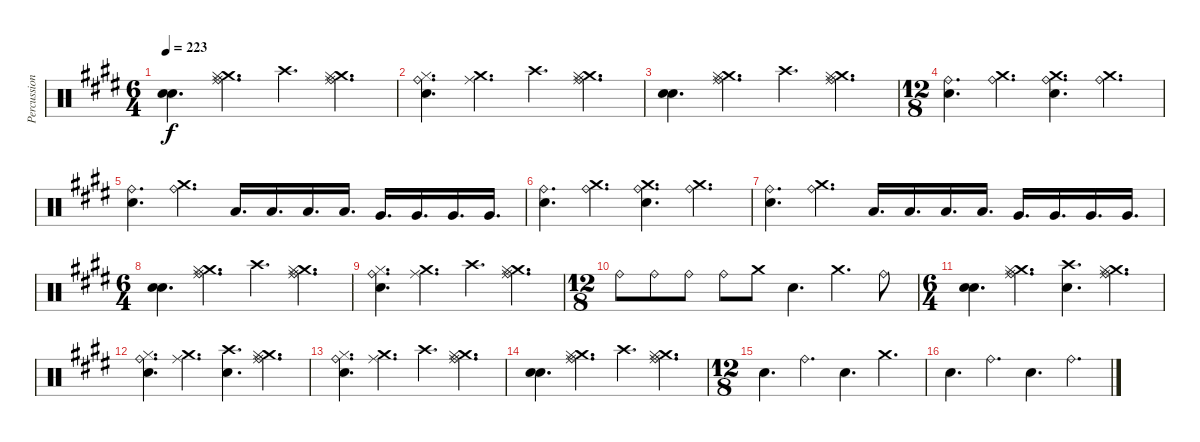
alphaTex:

\track ("Percussion" "Percussion") {instrument percussion}
\staff {score}
\articulation defaults
\ts (6 4)
\tempo 223
\clef neutral
\ks e
("Snare (hit) 2" "Snare (hit) 2").4{d dy f} ("Ride (middle)" "Crash medium (hit)" "Hi-Hat (closed)" "Ride (bell)").4{d} "Crash high (hit)".4{d} ("Ride (middle)" "Crash medium (hit)" "Hi-Hat (closed)" "Ride (bell)").4{d} |
("Hi-Hat (closed)" "Snare (hit) 2" "Ride (bell)").4{d} ("Ride (middle)" "Crash medium (hit)").4{d} "Crash high (hit)".4{d} ("Ride (middle)" "Crash medium (hit)" "Hi-Hat (closed)" "Ride (bell)").4{d} |
("Snare (hit) 2" "Snare (hit) 2").4{d} ("Ride (middle)" "Crash medium (hit)" "Hi-Hat (closed)" "Ride (bell)").4{d} "Crash high (hit)".4{d} ("Ride (middle)" "Crash medium (hit)" "Hi-Hat (closed)" "Ride (bell)").4{d} |
\ts (12 8)
("Ride (bell)" "Snare (hit) 2").4{d} ("Crash medium (hit)" "Ride (bell)").4{d} ("Ride (bell)" "Crash medium (hit)" "Snare (hit) 2").4{d} ("Crash medium (hit)" "Ride (bell)").4{d} |
("Ride (bell)" "Snare (hit) 2").4{d} ("Crash medium (hit)" "Ride (bell)").4{d} "Low Tom (hit)".16{d} "Low Tom (hit)".16{d} "Low Tom (hit)".16{d} "Low Tom (hit)".16{d} "Very Low Tom (hit)".16{d} "Very Low Tom (hit)".16{d} "Very Low Tom (hit)".16{d} "Very Low Tom (hit)".16{d} |
("Ride (bell)" "Snare (hit) 2").4{d} ("Crash medium (hit)" "Ride (bell)").4{d} ("Ride (bell)" "Crash medium (hit)" "Snare (hit) 2").4{d} ("Crash medium (hit)" "Ride (bell)").4{d} |
("Ride (bell)" "Snare (hit) 2").4{d} ("Crash medium (hit)" "Ride (bell)").4{d} "Low Tom (hit)".16{d} "Low Tom (hit)".16{d} "Low Tom (hit)".16{d} "Low Tom (hit)".16{d} "Very Low Tom (hit)".16{d} "Very Low Tom (hit)".16{d} "Very Low Tom (hit)".16{d} "Very Low Tom (hit)".16{d} |
\ts (6 4)
("Snare (hit) 2" "Snare (hit) 2").4{d} ("Ride (middle)" "Crash medium (hit)" "Hi-Hat (closed)" "Ride (bell)").4{d} "Crash high (hit)".4{d} ("Ride (middle)" "Crash medium (hit)" "Hi-Hat (closed)" "Ride (bell)").4{d} |
("Hi-Hat (closed)" "Snare (hit) 2" "Ride (bell)").4{d} ("Ride (middle)" "Crash medium (hit)").4{d} "Crash high (hit)".4{d} ("Ride (middle)" "Crash medium (hit)" "Hi-Hat (closed)" "Ride (bell)").4{d} |
\ts (12 8)
"Ride (bell)".8 "Ride (bell)".8 "Ride (bell)".8 "Ride (bell)".8 "Crash medium (hit)".8 "Snare (hit) 2".4{d} "Crash medium (hit)".4{d} "Ride (bell)".8 |
\ts (6 4)
("Snare (hit) 2" "Snare (hit) 2").4{d} ("Ride (middle)" "Crash medium (hit)" "Hi-Hat (closed)" "Ride (bell)").4{d} ("Snare (hit) 2" "Crash high (hit)").4{d} ("Ride (middle)" "Crash medium (hit)" "Hi-Hat (closed)" "Ride (bell)").4{d} |
("Hi-Hat (closed)" "Snare (hit) 2" "Ride (bell)").4{d} ("Ride (middle)" "Crash medium (hit)").4{d} ("Snare (hit) 2" "Crash high (hit)").4{d} ("Ride (middle)" "Crash medium (hit)" "Hi-Hat (closed)" "Ride (bell)").4{d} |
("Hi-Hat (closed)" "Snare (hit) 2" "Ride (bell)").4{d} ("Ride (middle)" "Crash medium (hit)").4{d} "Crash high (hit)".4{d} ("Ride (middle)" "Crash medium (hit)" "Hi-Hat (closed)" "Ride (bell)").4{d} |
("Snare (hit) 2" "Snare (hit) 2").4{d} ("Ride (middle)" "Crash medium (hit)" "Hi-Hat (closed)" "Ride (bell)").4{d} "Crash high (hit)".4{d} ("Ride (middle)" "Crash medium (hit)" "Hi-Hat (closed)" "Ride (bell)").4{d} |
\ts (12 8)
"Snare (hit) 2".4{d} "Ride (bell)".4{d} "Snare (hit) 2".4{d} "Crash medium (hit)".4{d} |
"Snare (hit) 2".4{d} "Ride (bell)".4{d} "Snare (hit) 2".4{d} "Ride (bell)".4{d}
